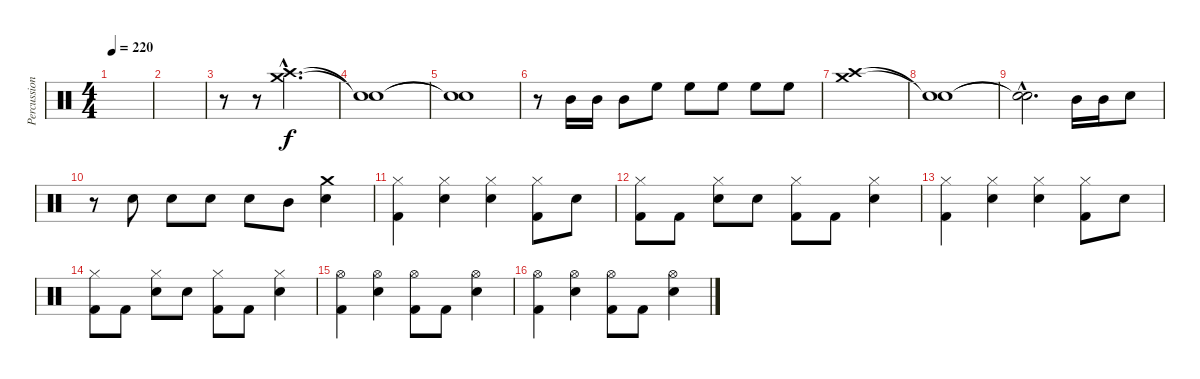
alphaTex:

\track ("Percussion" "Percussion") {instrument percussion}
\staff {score}
\articulation defaults
\ts (4 4)
\tempo 220
\clef neutral
\ks c
|
|
r.8 r.8 ("Crash high (hit)"{hac} "Crash medium (hit)"{hac}).2{d} |
("Snare (hit)"{t} "Snare (hit)"{t}).1 |
("Snare (hit)"{t} "Snare (hit)"{t}).1 |
r.8 "Mid Tom (hit)".16 "Mid Tom (hit)".16 "Mid Tom (hit)".8 "High Floor Tom (hit)".8 "High Floor Tom (hit)".8 "High Floor Tom (hit)".8 "High Floor Tom (hit)".8 "High Floor Tom (hit)".8 |
("Crash medium (hit)" "Crash high (hit)").1 |
("Snare (hit)"{t} "Snare (hit)"{t}).1 |
("Snare (hit)"{hac t} "Snare (hit)"{hac t}).2{d} "Mid Tom (hit)".16 "Mid Tom (hit)".16 "Snare (hit) 2".8 |
r.8 "Snare (hit) 2".8 "Snare (hit) 2".8 "Snare (hit) 2".8 "Snare (hit) 2".8 "Mid Tom (hit)".8 ("Crash medium (hit)" "Snare (hit) 2").4 |
("Hi-Hat (closed)" "Kick (hit) 2").4 ("Hi-Hat (closed)" "Snare (hit) 2").4 ("Hi-Hat (closed)" "Snare (hit) 2").4 ("Hi-Hat (closed)" "Kick (hit) 2").8 "Snare (hit) 2".8 |
("Hi-Hat (closed)" "Kick (hit) 2").8 "Kick (hit) 2".8 ("Hi-Hat (closed)" "Snare (hit) 2").8 "Snare (hit) 2".8 ("Hi-Hat (closed)" "Kick (hit) 2").8 "Kick (hit) 2".8 ("Hi-Hat (closed)" "Snare (hit) 2").4 |
("Hi-Hat (closed)" "Kick (hit) 2").4 ("Hi-Hat (closed)" "Snare (hit) 2").4 ("Hi-Hat (closed)" "Snare (hit) 2").4 ("Hi-Hat (closed)" "Kick (hit) 2").8 "Snare (hit) 2".8 |
("Hi-Hat (closed)" "Kick (hit) 2").8 "Kick (hit) 2".8 ("Hi-Hat (closed)" "Snare (hit) 2").8 "Snare (hit) 2".8 ("Hi-Hat (closed)" "Kick (hit) 2").8 "Kick (hit) 2".8 ("Hi-Hat (closed)" "Snare (hit) 2").4 |
("Hi-Hat (open)" "Kick (hit) 2").4 ("Hi-Hat (open)" "Snare (hit) 2").4 ("Hi-Hat (open)" "Kick (hit) 2").8 "Kick (hit) 2".8 ("Hi-Hat (open)" "Snare (hit) 2").4 |
("Hi-Hat (open)" "Kick (hit) 2").4 ("Hi-Hat (open)" "Snare (hit) 2").4 ("Hi-Hat (open)" "Kick (hit) 2").8 "Kick (hit) 2".8 ("Hi-Hat (open)" "Snare (hit) 2").4
